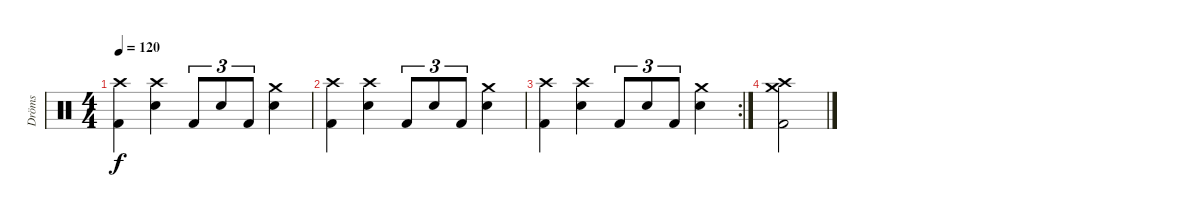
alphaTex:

\track ("Dröms" "Dröms") {instrument percussion}
\staff {score}
\articulation defaults
\ts (4 4)
\tempo 120
\clef neutral
\ks c
("Crash high (hit)" "Kick (hit) 2").4{dy f} ("Crash high (hit)" "Snare (hit) 2").4 "Kick (hit) 2".8{tu (3 2)} "Snare (hit) 2".8{tu (3 2)} "Kick (hit) 2".8{tu (3 2)} ("Crash medium (hit)" "Snare (hit) 2").4 |
("Crash high (hit)" "Kick (hit) 2").4 ("Crash high (hit)" "Snare (hit) 2").4 "Kick (hit) 2".8{tu (3 2)} "Snare (hit) 2".8{tu (3 2)} "Kick (hit) 2".8{tu (3 2)} ("Crash medium (hit)" "Snare (hit) 2").4 |
\rc 2
("Crash high (hit)" "Kick (hit) 2").4 ("Crash high (hit)" "Snare (hit) 2").4 "Kick (hit) 2".8{tu (3 2)} "Snare (hit) 2".8{tu (3 2)} "Kick (hit) 2".8{tu (3 2)} ("Crash medium (hit)" "Snare (hit) 2").4 |
("Crash high (hit)" "Crash medium (hit)" "Kick (hit) 2").2
